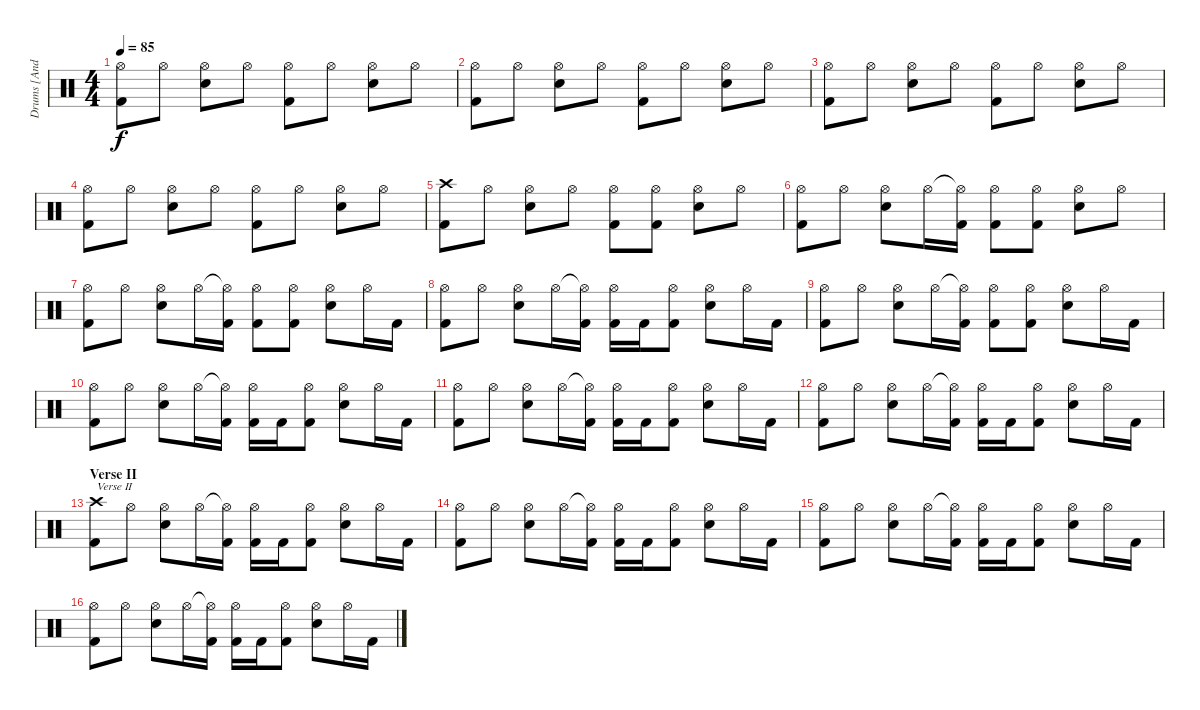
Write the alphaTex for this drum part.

\track ("Drums [Anders Kobro]" "Drums [And") {instrument percussion}
\staff {score}
\articulation defaults
\ts (4 4)
\tempo 85
\clef neutral
\ks c
("Hi-Hat (open)" "Kick (hit) 2").8{dy f} "Hi-Hat (open)".8 ("Hi-Hat (open)" "Electric Snare (hit)").8 "Hi-Hat (open)".8 ("Hi-Hat (open)" "Kick (hit) 2").8 "Hi-Hat (open)".8 ("Hi-Hat (open)" "Electric Snare (hit)").8 "Hi-Hat (open)".8 |
("Hi-Hat (open)" "Kick (hit) 2").8 "Hi-Hat (open)".8 ("Hi-Hat (open)" "Electric Snare (hit)").8 "Hi-Hat (open)".8 ("Hi-Hat (open)" "Kick (hit) 2").8 "Hi-Hat (open)".8 ("Hi-Hat (open)" "Electric Snare (hit)").8 "Hi-Hat (open)".8 |
("Hi-Hat (open)" "Kick (hit) 2").8 "Hi-Hat (open)".8 ("Hi-Hat (open)" "Electric Snare (hit)").8 "Hi-Hat (open)".8 ("Hi-Hat (open)" "Kick (hit) 2").8 "Hi-Hat (open)".8 ("Hi-Hat (open)" "Electric Snare (hit)").8 "Hi-Hat (open)".8 |
("Hi-Hat (open)" "Kick (hit) 2").8 "Hi-Hat (open)".8 ("Hi-Hat (open)" "Electric Snare (hit)").8 "Hi-Hat (open)".8 ("Hi-Hat (open)" "Kick (hit) 2").8 "Hi-Hat (open)".8 ("Hi-Hat (open)" "Electric Snare (hit)").8 "Hi-Hat (open)".8 |
("Crash high (hit)" "Kick (hit) 2").8 "Hi-Hat (open)".8 ("Hi-Hat (open)" "Electric Snare (hit)").8 "Hi-Hat (open)".8 ("Hi-Hat (open)" "Kick (hit) 2").8 ("Hi-Hat (open)" "Kick (hit) 2").8 ("Hi-Hat (open)" "Electric Snare (hit)").8 "Hi-Hat (open)".8 |
("Hi-Hat (open)" "Kick (hit) 2").8 "Hi-Hat (open)".8 ("Hi-Hat (open)" "Electric Snare (hit)").8 "Hi-Hat (open)".16 ("Hi-Hat (open)"{t} "Kick (hit) 2").16 ("Hi-Hat (open)" "Kick (hit) 2").8 ("Hi-Hat (open)" "Kick (hit) 2").8 ("Hi-Hat (open)" "Electric Snare (hit)").8 "Hi-Hat (open)".8 |
("Hi-Hat (open)" "Kick (hit) 2").8 "Hi-Hat (open)".8 ("Hi-Hat (open)" "Electric Snare (hit)").8 "Hi-Hat (open)".16 ("Hi-Hat (open)"{t} "Kick (hit) 2").16 ("Hi-Hat (open)" "Kick (hit) 2").8 ("Hi-Hat (open)" "Kick (hit) 2").8 ("Hi-Hat (open)" "Electric Snare (hit)").8 "Hi-Hat (open)".16 "Kick (hit) 2".16 |
("Hi-Hat (open)" "Kick (hit) 2").8 "Hi-Hat (open)".8 ("Hi-Hat (open)" "Electric Snare (hit)").8 "Hi-Hat (open)".16 ("Hi-Hat (open)"{t} "Kick (hit) 2").16 ("Hi-Hat (open)" "Kick (hit) 2").16 "Kick (hit) 2".16 ("Hi-Hat (open)" "Kick (hit) 2").8 ("Hi-Hat (open)" "Electric Snare (hit)").8 "Hi-Hat (open)".16 "Kick (hit) 2".16 |
("Hi-Hat (open)" "Kick (hit) 2").8 "Hi-Hat (open)".8 ("Hi-Hat (open)" "Electric Snare (hit)").8 "Hi-Hat (open)".16 ("Hi-Hat (open)"{t} "Kick (hit) 2").16 ("Hi-Hat (open)" "Kick (hit) 2").8 ("Hi-Hat (open)" "Kick (hit) 2").8 ("Hi-Hat (open)" "Electric Snare (hit)").8 "Hi-Hat (open)".16 "Kick (hit) 2".16 |
("Hi-Hat (open)" "Kick (hit) 2").8 "Hi-Hat (open)".8 ("Hi-Hat (open)" "Electric Snare (hit)").8 "Hi-Hat (open)".16 ("Hi-Hat (open)"{t} "Kick (hit) 2").16 ("Hi-Hat (open)" "Kick (hit) 2").16 "Kick (hit) 2".16 ("Hi-Hat (open)" "Kick (hit) 2").8 ("Hi-Hat (open)" "Electric Snare (hit)").8 "Hi-Hat (open)".16 "Kick (hit) 2".16 |
("Hi-Hat (open)" "Kick (hit) 2").8 "Hi-Hat (open)".8 ("Hi-Hat (open)" "Electric Snare (hit)").8 "Hi-Hat (open)".16 ("Hi-Hat (open)"{t} "Kick (hit) 2").16 ("Hi-Hat (open)" "Kick (hit) 2").16 "Kick (hit) 2".16 ("Hi-Hat (open)" "Kick (hit) 2").8 ("Hi-Hat (open)" "Electric Snare (hit)").8 "Hi-Hat (open)".16 "Kick (hit) 2".16 |
("Hi-Hat (open)" "Kick (hit) 2").8 "Hi-Hat (open)".8 ("Hi-Hat (open)" "Electric Snare (hit)").8 "Hi-Hat (open)".16 ("Hi-Hat (open)"{t} "Kick (hit) 2").16 ("Hi-Hat (open)" "Kick (hit) 2").16 "Kick (hit) 2".16 ("Hi-Hat (open)" "Kick (hit) 2").8 ("Hi-Hat (open)" "Electric Snare (hit)").8 "Hi-Hat (open)".16 "Kick (hit) 2".16 |
\section ("" "Verse II")
("Crash high (hit)" "Kick (hit) 2").8{txt "Verse II"} "Hi-Hat (open)".8 ("Hi-Hat (open)" "Electric Snare (hit)").8 "Hi-Hat (open)".16 ("Hi-Hat (open)"{t} "Kick (hit) 2").16 ("Hi-Hat (open)" "Kick (hit) 2").16 "Kick (hit) 2".16 ("Hi-Hat (open)" "Kick (hit) 2").8 ("Hi-Hat (open)" "Electric Snare (hit)").8 "Hi-Hat (open)".16 "Kick (hit) 2".16 |
("Hi-Hat (open)" "Kick (hit) 2").8 "Hi-Hat (open)".8 ("Hi-Hat (open)" "Electric Snare (hit)").8 "Hi-Hat (open)".16 ("Hi-Hat (open)"{t} "Kick (hit) 2").16 ("Hi-Hat (open)" "Kick (hit) 2").16 "Kick (hit) 2".16 ("Hi-Hat (open)" "Kick (hit) 2").8 ("Hi-Hat (open)" "Electric Snare (hit)").8 "Hi-Hat (open)".16 "Kick (hit) 2".16 |
("Hi-Hat (open)" "Kick (hit) 2").8 "Hi-Hat (open)".8 ("Hi-Hat (open)" "Electric Snare (hit)").8 "Hi-Hat (open)".16 ("Hi-Hat (open)"{t} "Kick (hit) 2").16 ("Hi-Hat (open)" "Kick (hit) 2").16 "Kick (hit) 2".16 ("Hi-Hat (open)" "Kick (hit) 2").8 ("Hi-Hat (open)" "Electric Snare (hit)").8 "Hi-Hat (open)".16 "Kick (hit) 2".16 |
("Hi-Hat (open)" "Kick (hit) 2").8 "Hi-Hat (open)".8 ("Hi-Hat (open)" "Electric Snare (hit)").8 "Hi-Hat (open)".16 ("Hi-Hat (open)"{t} "Kick (hit) 2").16 ("Hi-Hat (open)" "Kick (hit) 2").16 "Kick (hit) 2".16 ("Hi-Hat (open)" "Kick (hit) 2").8 ("Hi-Hat (open)" "Electric Snare (hit)").8 "Hi-Hat (open)".16 "Kick (hit) 2".16
